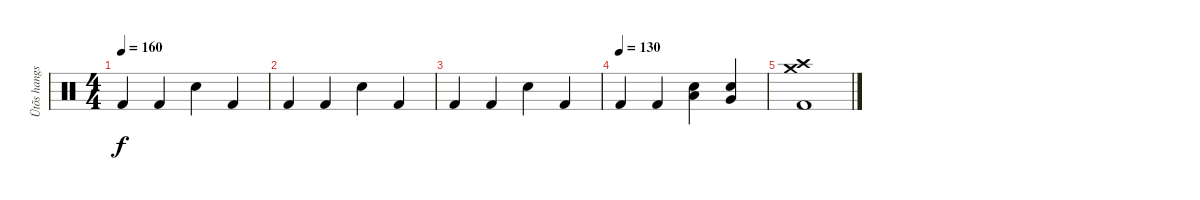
\track ("Ütõs hangszer" "Ütõs hangs") {instrument percussion}
\staff {score}
\articulation defaults
\ts (4 4)
\tempo 160
\clef neutral
\ks c "Kick (hit) 2".4{dy f} "Kick (hit) 2".4 "Electric Snare (hit)".4 "Kick (hit) 2".4
|
"Kick (hit) 2".4 "Kick (hit) 2".4 "Electric Snare (hit)".4 "Kick (hit) 2".4 |
"Kick (hit) 2".4 "Kick (hit) 2".4 "Electric Snare (hit)".4 "Kick (hit) 2".4 |
\tempo (130)
"Kick (hit) 2".4 "Kick (hit) 2".4 ("Electric Snare (hit)" "Low Floor Tom (hit)").4 ("Electric Snare (hit)" "Very Low Tom (hit)").4 |
("Kick (hit) 2" "Crash medium (hit)" "Crash high (hit)").1
